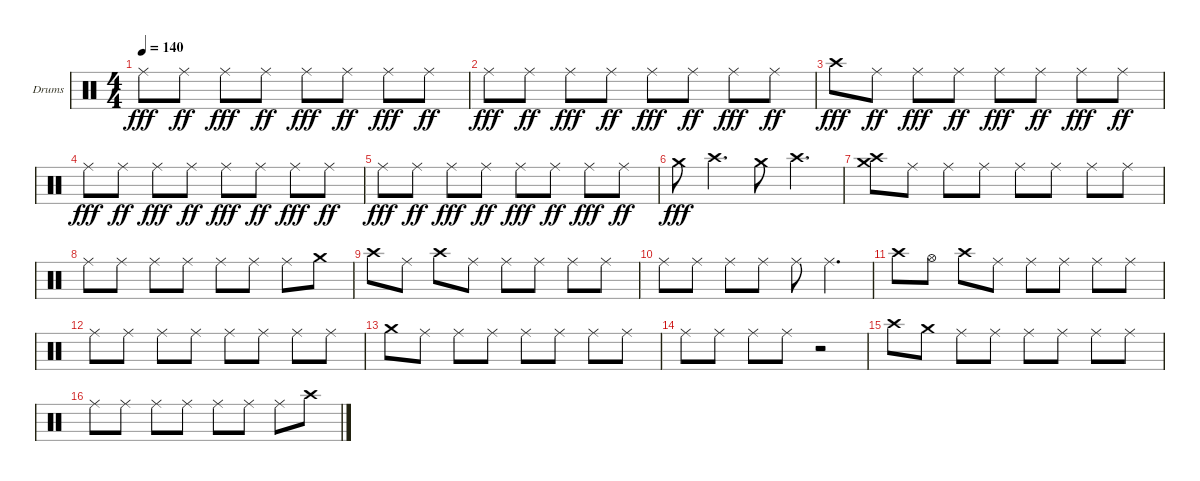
\defaultSystemsLayout 4
\bracketExtendMode groupsimilarinstruments
\firstSystemTrackNameOrientation horizontal
\otherSystemsTrackNameOrientation horizontal
\track ("Helders" "Drums") {instrument percussion}
\staff {score}
\articulation defaults
\ts (4 4)
\tempo 140
\clef neutral
\ks c "Ride (middle)".8{dy fff} "Ride (middle)".8{dy ff} "Ride (middle)".8{dy fff} "Ride (middle)".8{dy ff} "Ride (middle)".8{dy fff} "Ride (middle)".8{dy ff} "Ride (middle)".8{dy fff} "Ride (middle)".8{dy ff}
|
"Ride (middle)".8{dy fff} "Ride (middle)".8{dy ff} "Ride (middle)".8{dy fff} "Ride (middle)".8{dy ff} "Ride (middle)".8{dy fff} "Ride (middle)".8{dy ff} "Ride (middle)".8{dy fff} "Ride (middle)".8{dy ff} |
"Crash high (hit)".8{dy fff} "Ride (middle)".8{dy ff} "Ride (middle)".8{dy fff} "Ride (middle)".8{dy ff} "Ride (middle)".8{dy fff} "Ride (middle)".8{dy ff} "Ride (middle)".8{dy fff} "Ride (middle)".8{dy ff} |
"Ride (middle)".8{dy fff} "Ride (middle)".8{dy ff} "Ride (middle)".8{dy fff} "Ride (middle)".8{dy ff} "Ride (middle)".8{dy fff} "Ride (middle)".8{dy ff} "Ride (middle)".8{dy fff} "Ride (middle)".8{dy ff} |
"Ride (middle)".8{dy fff} "Ride (middle)".8{dy ff} "Ride (middle)".8{dy fff} "Ride (middle)".8{dy ff} "Ride (middle)".8{dy fff} "Ride (middle)".8{dy ff} "Ride (middle)".8{dy fff} "Ride (middle)".8{dy ff} |
"Crash medium (hit)".8{dy fff} "Crash high (hit)".4{d} "Crash medium (hit)".8 "Crash high (hit)".4{d} |
("Crash high (hit)" "Crash medium (hit)").8 "Ride (middle)".8 "Ride (middle)".8 "Ride (middle)".8 "Ride (middle)".8 "Ride (middle)".8 "Ride (middle)".8 "Ride (middle)".8 |
"Ride (middle)".8 "Ride (middle)".8 "Ride (middle)".8 "Ride (middle)".8 "Ride (middle)".8 "Ride (middle)".8 "Ride (middle)".8 "Crash medium (hit)".8 |
"Crash high (hit)".8 "Ride (middle)".8 "Crash high (hit)".8 "Ride (middle)".8 "Ride (middle)".8 "Ride (middle)".8 "Ride (middle)".8 "Ride (middle)".8 |
"Ride (middle)".8 "Ride (middle)".8 "Ride (middle)".8 "Ride (middle)".8 "Ride (middle)".8 "Ride (middle)".4{d} |
"Crash high (hit)".8 "Hi-Hat (open)".8 "Crash high (hit)".8 "Ride (middle)".8 "Ride (middle)".8 "Ride (middle)".8 "Ride (middle)".8 "Ride (middle)".8 |
"Ride (middle)".8 "Ride (middle)".8 "Ride (middle)".8 "Ride (middle)".8 "Ride (middle)".8 "Ride (middle)".8 "Ride (middle)".8 "Ride (middle)".8 |
"Crash medium (hit)".8 "Ride (middle)".8 "Ride (middle)".8 "Ride (middle)".8 "Ride (middle)".8 "Ride (middle)".8 "Ride (middle)".8 "Ride (middle)".8 |
"Ride (middle)".8 "Ride (middle)".8 "Ride (middle)".8 "Ride (middle)".8 r.2 |
"Crash high (hit)".8 "Crash medium (hit)".8 "Ride (middle)".8 "Ride (middle)".8 "Ride (middle)".8 "Ride (middle)".8 "Ride (middle)".8 "Ride (middle)".8 |
"Ride (middle)".8 "Ride (middle)".8 "Ride (middle)".8 "Ride (middle)".8 "Ride (middle)".8 "Ride (middle)".8 "Ride (middle)".8 "Crash high (hit)".8
